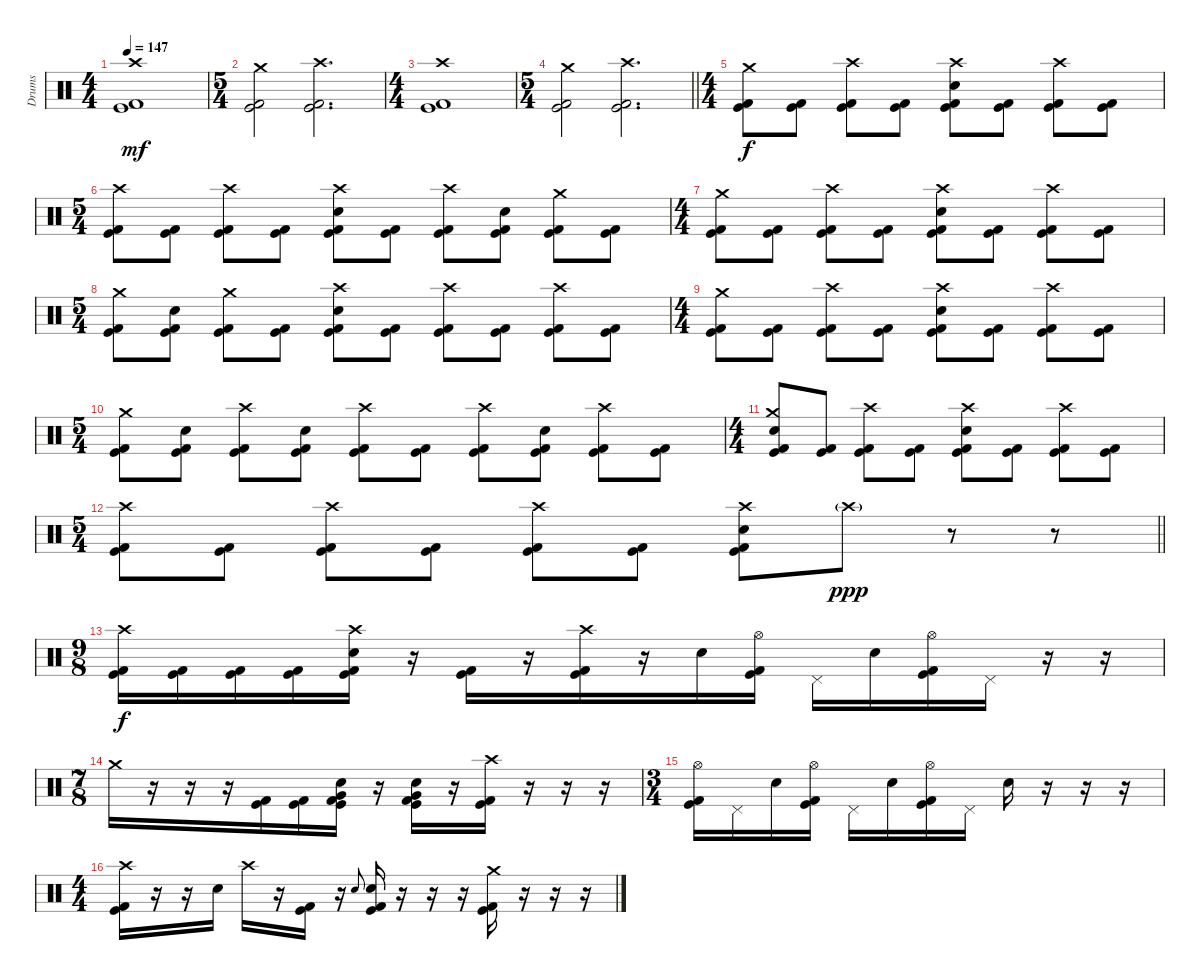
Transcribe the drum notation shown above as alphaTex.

\track ("Drums" "Drums") {instrument percussion}
\staff {score}
\articulation defaults
\ts (4 4)
\tempo 147
\clef neutral
\ks c
("Crash high (hit)" "Kick (hit)" "Kick (hit) 2").1{dy mf} |
\ts (5 4)
("Crash medium (hit)" "Kick (hit)" "Kick (hit) 2").2 ("Crash high (hit)" "Kick (hit)" "Kick (hit) 2").2{d} |
\ts (4 4)
("Crash high (hit)" "Kick (hit)" "Kick (hit) 2").1 |
\ts (5 4)
\barLineRight lightlight
("Crash medium (hit)" "Kick (hit)" "Kick (hit) 2").2 ("Crash high (hit)" "Kick (hit)" "Kick (hit) 2").2{d} |
\ts (4 4)
("Crash medium (hit)" "Kick (hit)" "Kick (hit) 2").8{dy f} ("Kick (hit)" "Kick (hit) 2").8 ("Crash high (hit)" "Kick (hit)" "Kick (hit) 2").8 ("Kick (hit)" "Kick (hit) 2").8 ("Crash high (hit)" "Electric Snare (hit)" "Kick (hit)" "Kick (hit) 2").8 ("Kick (hit)" "Kick (hit) 2").8 ("Crash high (hit)" "Kick (hit)" "Kick (hit) 2").8 ("Kick (hit)" "Kick (hit) 2").8 |
\ts (5 4)
("Crash high (hit)" "Kick (hit)" "Kick (hit) 2").8 ("Kick (hit)" "Kick (hit) 2").8 ("Crash high (hit)" "Kick (hit)" "Kick (hit) 2").8 ("Kick (hit)" "Kick (hit) 2").8 ("Crash high (hit)" "Electric Snare (hit)" "Kick (hit)" "Kick (hit) 2").8 ("Kick (hit)" "Kick (hit) 2").8 ("Crash high (hit)" "Kick (hit)" "Kick (hit) 2").8 ("Electric Snare (hit)" "Kick (hit)" "Kick (hit) 2").8 ("Crash medium (hit)" "Kick (hit)" "Kick (hit) 2").8 ("Kick (hit)" "Kick (hit) 2").8 |
\ts (4 4)
("Crash medium (hit)" "Kick (hit)" "Kick (hit) 2").8 ("Kick (hit)" "Kick (hit) 2").8 ("Crash high (hit)" "Kick (hit)" "Kick (hit) 2").8 ("Kick (hit)" "Kick (hit) 2").8 ("Crash high (hit)" "Electric Snare (hit)" "Kick (hit)" "Kick (hit) 2").8 ("Kick (hit)" "Kick (hit) 2").8 ("Crash high (hit)" "Kick (hit)" "Kick (hit) 2").8 ("Kick (hit)" "Kick (hit) 2").8 |
\ts (5 4)
("Crash medium (hit)" "Kick (hit)" "Kick (hit) 2").8 ("Electric Snare (hit)" "Kick (hit)" "Kick (hit) 2").8 ("Crash medium (hit)" "Kick (hit)" "Kick (hit) 2").8 ("Kick (hit)" "Kick (hit) 2").8 ("Crash high (hit)" "Electric Snare (hit)" "Kick (hit)" "Kick (hit) 2").8 ("Kick (hit)" "Kick (hit) 2").8 ("Crash high (hit)" "Kick (hit)" "Kick (hit) 2").8 ("Kick (hit)" "Kick (hit) 2").8 ("Crash high (hit)" "Kick (hit)" "Kick (hit) 2").8 ("Kick (hit)" "Kick (hit) 2").8 |
\ts (4 4)
("Crash medium (hit)" "Kick (hit)" "Kick (hit) 2").8 ("Kick (hit)" "Kick (hit) 2").8 ("Crash high (hit)" "Kick (hit)" "Kick (hit) 2").8 ("Kick (hit)" "Kick (hit) 2").8 ("Crash high (hit)" "Electric Snare (hit)" "Kick (hit)" "Kick (hit) 2").8 ("Kick (hit)" "Kick (hit) 2").8 ("Crash high (hit)" "Kick (hit)" "Kick (hit) 2").8 ("Kick (hit)" "Kick (hit) 2").8 |
\ts (5 4)
("Crash medium (hit)" "Kick (hit)" "Kick (hit) 2").8 ("Electric Snare (hit)" "Kick (hit)" "Kick (hit) 2").8 ("Crash high (hit)" "Kick (hit)" "Kick (hit) 2").8 ("Electric Snare (hit)" "Kick (hit)" "Kick (hit) 2").8 ("Crash high (hit)" "Kick (hit)" "Kick (hit) 2").8 ("Kick (hit)" "Kick (hit) 2").8 ("Crash high (hit)" "Kick (hit)" "Kick (hit) 2").8 ("Electric Snare (hit)" "Kick (hit)" "Kick (hit) 2").8 ("Crash high (hit)" "Kick (hit)" "Kick (hit) 2").8 ("Kick (hit)" "Kick (hit) 2").8 |
\ts (4 4)
("Crash medium (hit)" "Electric Snare (hit)" "Kick (hit)" "Kick (hit) 2").8 ("Kick (hit)" "Kick (hit) 2").8 ("Crash high (hit)" "Kick (hit)" "Kick (hit) 2").8 ("Kick (hit)" "Kick (hit) 2").8 ("Crash high (hit)" "Electric Snare (hit)" "Kick (hit)" "Kick (hit) 2").8 ("Kick (hit)" "Kick (hit) 2").8 ("Crash high (hit)" "Kick (hit)" "Kick (hit) 2").8 ("Kick (hit)" "Kick (hit) 2").8 |
\ts (5 4)
\barLineRight lightlight
("Crash high (hit)" "Kick (hit)" "Kick (hit) 2").8 ("Kick (hit)" "Kick (hit) 2").8 ("Crash high (hit)" "Kick (hit)" "Kick (hit) 2").8 ("Kick (hit)" "Kick (hit) 2").8 ("Crash high (hit)" "Kick (hit)" "Kick (hit) 2").8 ("Kick (hit)" "Kick (hit) 2").8 ("Crash high (hit)" "Electric Snare (hit)" "Kick (hit)" "Kick (hit) 2").8 "Crash high (hit)"{g}.8{dy ppp} r.8 r.8 |
\ts (9 8)
("Crash high (hit)" "Kick (hit)" "Kick (hit) 2").16{dy f} ("Kick (hit)" "Kick (hit) 2").16 ("Kick (hit)" "Kick (hit) 2").16 ("Kick (hit)" "Kick (hit) 2").16 ("Crash high (hit)" "Electric Snare (hit)" "Kick (hit)" "Kick (hit) 2").16 r.16 ("Kick (hit)" "Kick (hit) 2").16 r.16 ("Crash high (hit)" "Kick (hit)" "Kick (hit) 2").16 r.16 "Electric Snare (hit)".16 ("Hi-Hat (open)" "Kick (hit)" "Kick (hit) 2").16 "Pedal Hi-Hat (hit)".16 "Electric Snare (hit)".16 ("Hi-Hat (open)" "Kick (hit)" "Kick (hit) 2").16 "Pedal Hi-Hat (hit)".16 r.16 r.16 |
\ts (7 8)
"Crash medium (hit)".16 r.16 r.16 r.16 ("Kick (hit)" "Kick (hit) 2").16 ("Kick (hit)" "Kick (hit) 2").16 ("Electric Snare (hit)" "Very Low Tom (hit)" "Kick (hit)" "Kick (hit) 2").16 r.16 ("Electric Snare (hit)" "Very Low Tom (hit)" "Kick (hit)" "Kick (hit) 2").16 r.16 ("Crash high (hit)" "Kick (hit)" "Kick (hit) 2").16 r.16 r.16 r.16 |
\ts (3 4)
("Hi-Hat (open)" "Kick (hit)" "Kick (hit) 2").16 "Pedal Hi-Hat (hit)".16 "Electric Snare (hit)".16 ("Hi-Hat (open)" "Kick (hit)" "Kick (hit) 2").16 "Pedal Hi-Hat (hit)".16 "Electric Snare (hit)".16 ("Hi-Hat (open)" "Kick (hit)" "Kick (hit) 2").16 "Pedal Hi-Hat (hit)".16 "Electric Snare (hit)".16 r.16 r.16 r.16 |
\ts (4 4)
("Crash high (hit)" "Kick (hit)" "Kick (hit) 2").16 r.16 r.16 "Electric Snare (hit)".16 "Crash high (hit)".16 r.16 ("Kick (hit)" "Kick (hit) 2").16 r.16 "Electric Snare (hit)".8{gr onbeat} ("Electric Snare (hit)" "Kick (hit)" "Kick (hit) 2").16 r.16 r.16 r.16 ("Crash medium (hit)" "Kick (hit)" "Kick (hit) 2").16 r.16 r.16 r.16
